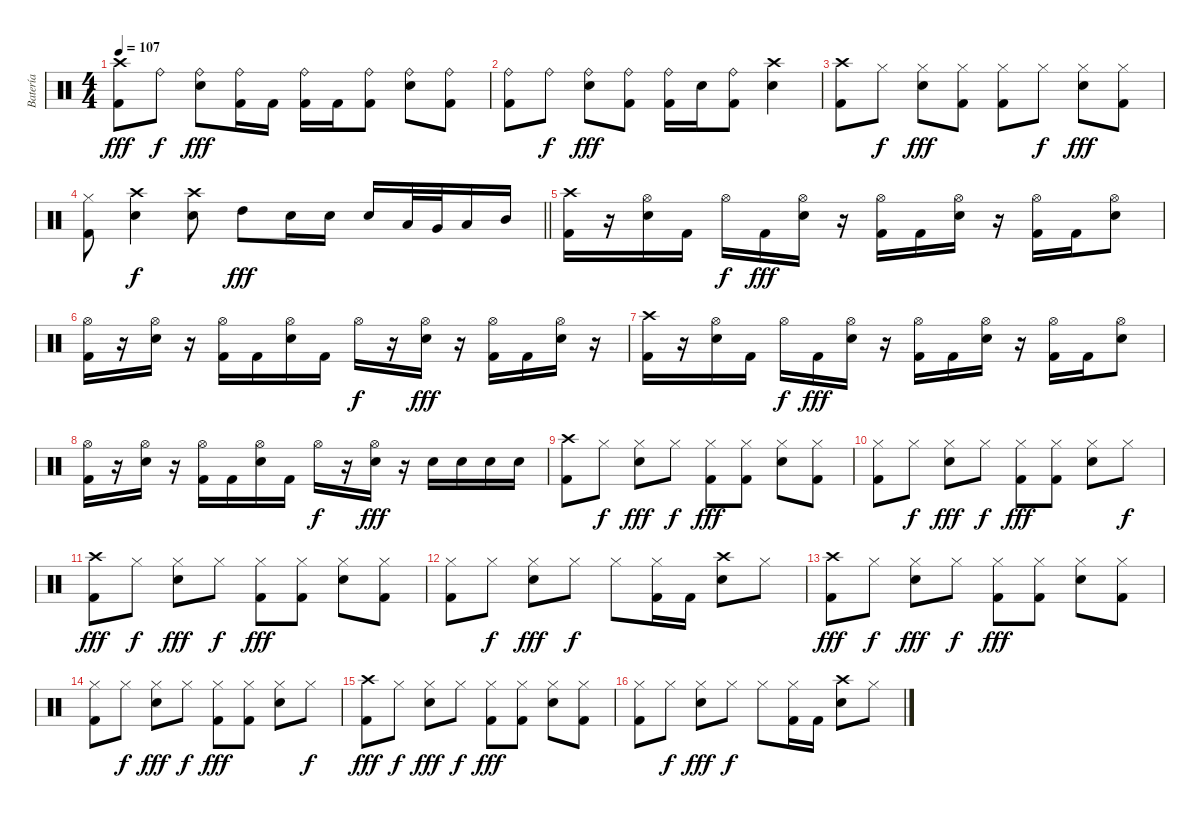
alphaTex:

\track ("Batería" "Batería") {instrument percussion}
\staff {score}
\articulation defaults
\ts (4 4)
\tempo 107
\clef neutral
\ks c
("Crash high (hit)" "Kick (hit) 2").8{dy fff} "Ride (bell)".8{dy f} ("Ride (bell)" "Electric Snare (hit)").8{dy fff} ("Ride (bell)" "Kick (hit) 2").16 "Kick (hit) 2".16 ("Ride (bell)" "Kick (hit) 2").16 "Kick (hit) 2".16 ("Ride (bell)" "Kick (hit) 2").8 ("Ride (bell)" "Electric Snare (hit)").8 ("Ride (bell)" "Kick (hit) 2").8 |
("Ride (bell)" "Kick (hit) 2").8 "Ride (bell)".8{dy f} ("Ride (bell)" "Electric Snare (hit)").8{dy fff} ("Ride (bell)" "Kick (hit) 2").8 ("Ride (bell)" "Kick (hit) 2").16 "Electric Snare (hit)".16 ("Ride (bell)" "Kick (hit) 2").8 ("Crash high (hit)" "Electric Snare (hit)").4 |
("Crash high (hit)" "Kick (hit) 2").8 "Hi-Hat (closed)".8{dy f} ("Hi-Hat (closed)" "Electric Snare (hit)").8{dy fff} ("Hi-Hat (closed)" "Kick (hit) 2").8 ("Hi-Hat (closed)" "Kick (hit) 2").8 "Hi-Hat (closed)".8{dy f} ("Hi-Hat (closed)" "Electric Snare (hit)").8{dy fff} ("Hi-Hat (closed)" "Kick (hit) 2").8 |
\barLineRight lightlight
("Hi-Hat (closed)" "Kick (hit) 2").8 ("Crash high (hit)" "Electric Snare (hit)").4{dy f} ("Crash high (hit)" "Electric Snare (hit)").8 "High Tom (hit)".8{dy fff} "Electric Snare (hit)".16 "Electric Snare (hit)".16 "Electric Snare (hit)".16 "Low Floor Tom (hit)".32 "Very Low Tom (hit)".32 "Low Tom (hit)".16 "Mid Tom (hit)".16 |
("Crash high (hit)" "Kick (hit) 2").16 r.16 ("Hi-Hat (open)" "Electric Snare (hit)").16 "Kick (hit) 2".16 "Hi-Hat (open)".16{dy f} "Kick (hit) 2".16{dy fff} ("Hi-Hat (open)" "Electric Snare (hit)").16 r.16 ("Hi-Hat (open)" "Kick (hit) 2").16 "Kick (hit) 2".16 ("Hi-Hat (open)" "Electric Snare (hit)").16 r.16 ("Hi-Hat (open)" "Kick (hit) 2").16 "Kick (hit) 2".16 ("Hi-Hat (open)" "Electric Snare (hit)").8 |
("Hi-Hat (open)" "Kick (hit) 2").16 r.16 ("Hi-Hat (open)" "Electric Snare (hit)").16 r.16 ("Hi-Hat (open)" "Kick (hit) 2").16 "Kick (hit) 2".16 ("Hi-Hat (open)" "Electric Snare (hit)").16 "Kick (hit) 2".16 "Hi-Hat (open)".16{dy f} r.16 ("Hi-Hat (open)" "Electric Snare (hit)").16{dy fff} r.16 ("Hi-Hat (open)" "Kick (hit) 2").16 "Kick (hit) 2".16 ("Hi-Hat (open)" "Electric Snare (hit)").16 r.16 |
("Crash high (hit)" "Kick (hit) 2").16 r.16 ("Hi-Hat (open)" "Electric Snare (hit)").16 "Kick (hit) 2".16 "Hi-Hat (open)".16{dy f} "Kick (hit) 2".16{dy fff} ("Hi-Hat (open)" "Electric Snare (hit)").16 r.16 ("Hi-Hat (open)" "Kick (hit) 2").16 "Kick (hit) 2".16 ("Hi-Hat (open)" "Electric Snare (hit)").16 r.16 ("Hi-Hat (open)" "Kick (hit) 2").16 "Kick (hit) 2".16 ("Hi-Hat (open)" "Electric Snare (hit)").8 |
("Hi-Hat (open)" "Kick (hit) 2").16 r.16 ("Hi-Hat (open)" "Electric Snare (hit)").16 r.16 ("Hi-Hat (open)" "Kick (hit) 2").16 "Kick (hit) 2".16 ("Hi-Hat (open)" "Electric Snare (hit)").16 "Kick (hit) 2".16 "Hi-Hat (open)".16{dy f} r.16 ("Hi-Hat (open)" "Electric Snare (hit)").16{dy fff} r.16 "Electric Snare (hit)".16 "Electric Snare (hit)".16 "Electric Snare (hit)".16 "Electric Snare (hit)".16 |
("Crash high (hit)" "Kick (hit) 2").8 "Hi-Hat (closed)".8{dy f} ("Hi-Hat (closed)" "Electric Snare (hit)").8{dy fff} "Hi-Hat (closed)".8{dy f} ("Hi-Hat (closed)" "Kick (hit) 2").8{dy fff} ("Hi-Hat (closed)" "Kick (hit) 2").8 ("Hi-Hat (closed)" "Electric Snare (hit)").8 ("Hi-Hat (closed)" "Kick (hit) 2").8 |
("Hi-Hat (closed)" "Kick (hit) 2").8 "Hi-Hat (closed)".8{dy f} ("Hi-Hat (closed)" "Electric Snare (hit)").8{dy fff} "Hi-Hat (closed)".8{dy f} ("Hi-Hat (closed)" "Kick (hit) 2").8{dy fff} ("Hi-Hat (closed)" "Kick (hit) 2").8 ("Hi-Hat (closed)" "Electric Snare (hit)").8 "Hi-Hat (closed)".8{dy f} |
("Crash high (hit)" "Kick (hit) 2").8{dy fff} "Hi-Hat (closed)".8{dy f} ("Hi-Hat (closed)" "Electric Snare (hit)").8{dy fff} "Hi-Hat (closed)".8{dy f} ("Hi-Hat (closed)" "Kick (hit) 2").8{dy fff} ("Hi-Hat (closed)" "Kick (hit) 2").8 ("Hi-Hat (closed)" "Electric Snare (hit)").8 ("Hi-Hat (closed)" "Kick (hit) 2").8 |
("Hi-Hat (closed)" "Kick (hit) 2").8 "Hi-Hat (closed)".8{dy f} ("Hi-Hat (closed)" "Electric Snare (hit)").8{dy fff} "Hi-Hat (closed)".8{dy f} "Hi-Hat (closed)".8 ("Hi-Hat (closed)" "Kick (hit) 2").16 "Kick (hit) 2".16 ("Crash high (hit)" "Electric Snare (hit)").8 "Hi-Hat (closed)".8 |
("Crash high (hit)" "Kick (hit) 2").8{dy fff} "Hi-Hat (closed)".8{dy f} ("Hi-Hat (closed)" "Electric Snare (hit)").8{dy fff} "Hi-Hat (closed)".8{dy f} ("Hi-Hat (closed)" "Kick (hit) 2").8{dy fff} ("Hi-Hat (closed)" "Kick (hit) 2").8 ("Hi-Hat (closed)" "Electric Snare (hit)").8 ("Hi-Hat (closed)" "Kick (hit) 2").8 |
("Hi-Hat (closed)" "Kick (hit) 2").8 "Hi-Hat (closed)".8{dy f} ("Hi-Hat (closed)" "Electric Snare (hit)").8{dy fff} "Hi-Hat (closed)".8{dy f} ("Hi-Hat (closed)" "Kick (hit) 2").8{dy fff} ("Hi-Hat (closed)" "Kick (hit) 2").8 ("Hi-Hat (closed)" "Electric Snare (hit)").8 "Hi-Hat (closed)".8{dy f} |
("Crash high (hit)" "Kick (hit) 2").8{dy fff} "Hi-Hat (closed)".8{dy f} ("Hi-Hat (closed)" "Electric Snare (hit)").8{dy fff} "Hi-Hat (closed)".8{dy f} ("Hi-Hat (closed)" "Kick (hit) 2").8{dy fff} ("Hi-Hat (closed)" "Kick (hit) 2").8 ("Hi-Hat (closed)" "Electric Snare (hit)").8 ("Hi-Hat (closed)" "Kick (hit) 2").8 |
("Hi-Hat (closed)" "Kick (hit) 2").8 "Hi-Hat (closed)".8{dy f} ("Hi-Hat (closed)" "Electric Snare (hit)").8{dy fff} "Hi-Hat (closed)".8{dy f} "Hi-Hat (closed)".8 ("Hi-Hat (closed)" "Kick (hit) 2").16 "Kick (hit) 2".16 ("Crash high (hit)" "Electric Snare (hit)").8 "Hi-Hat (closed)".8
